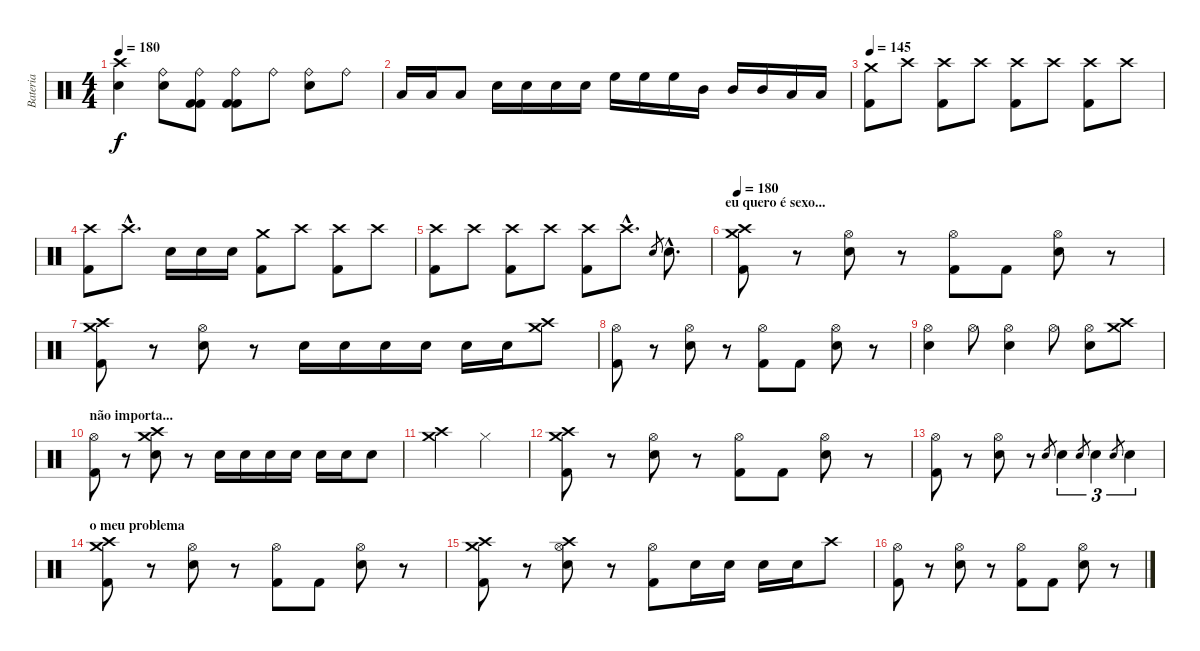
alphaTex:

\track ("Bateria" "Bateria") {instrument percussion}
\staff {score}
\articulation defaults
\ts (4 4)
\tempo 180
\clef neutral
\ks c
("Crash high (hit)" "Electric Snare (hit)").4{dy f} ("Ride (bell)" "Electric Snare (hit)").8 ("Ride (bell)" "Kick (hit) 2" "Kick (hit) 2").8 ("Ride (bell)" "Kick (hit) 2" "Kick (hit) 2").8 "Ride (bell)".8 ("Ride (bell)" "Electric Snare (hit)").8 "Ride (bell)".8 |
"Low Tom (hit)".16 "Low Tom (hit)".16 "Low Tom (hit)".8 "Electric Snare (hit)".16 "Electric Snare (hit)".16 "Electric Snare (hit)".16 "Electric Snare (hit)".16 "High Floor Tom (hit)".16 "High Floor Tom (hit)".16 "High Floor Tom (hit)".16 "Mid Tom (hit)".16 "Mid Tom (hit)".16 "Mid Tom (hit)".16 "Low Tom (hit)".16 "Low Tom (hit)".16 |
\tempo 145
("Crash medium (hit)" "Kick (hit) 2").8 "Crash high (hit)".8 ("Crash high (hit)" "Kick (hit) 2").8 "Crash high (hit)".8 ("Crash high (hit)" "Kick (hit) 2").8 "Crash high (hit)".8 ("Crash high (hit)" "Kick (hit) 2").8 "Crash high (hit)".8 |
("Crash high (hit)" "Kick (hit) 2").8 "Crash high (hit)"{hac}.8{d} "Electric Snare (hit)".16 "Electric Snare (hit)".16 "Electric Snare (hit)".16 ("Crash medium (hit)" "Kick (hit) 2").8 "Crash high (hit)".8 ("Crash high (hit)" "Kick (hit) 2").8 "Crash high (hit)".8 |
("Crash high (hit)" "Kick (hit) 2").8 "Crash high (hit)".8 ("Crash high (hit)" "Kick (hit) 2").8 "Crash high (hit)".8 ("Crash high (hit)" "Kick (hit) 2").8 "Crash high (hit)"{hac}.8{d} "Electric Snare (hit)".8{gr} "Electric Snare (hit)"{hac}.8{d} |
\section ("" "eu quero é sexo...")
\tempo 180
("Crash medium (hit)" "Crash high (hit)" "Kick (hit) 2").8 r.8 ("Hi-Hat (open)" "Electric Snare (hit)").8 r.8 ("Hi-Hat (open)" "Kick (hit) 2").8 "Kick (hit) 2".8 ("Hi-Hat (open)" "Electric Snare (hit)").8 r.8 |
("Crash medium (hit)" "Crash high (hit)" "Kick (hit) 2").8 r.8 ("Hi-Hat (open)" "Electric Snare (hit)").8 r.8 "Electric Snare (hit)".16 "Electric Snare (hit)".16 "Electric Snare (hit)".16 "Electric Snare (hit)".16 "Electric Snare (hit)".16 "Electric Snare (hit)".16 ("Crash medium (hit)" "Crash high (hit)").8 |
("Hi-Hat (open)" "Kick (hit) 2").8 r.8 ("Hi-Hat (open)" "Electric Snare (hit)").8 r.8 ("Hi-Hat (open)" "Kick (hit) 2").8 "Kick (hit) 2".8 ("Hi-Hat (open)" "Electric Snare (hit)").8 r.8 |
("Hi-Hat (open)" "Electric Snare (hit)").4 "Hi-Hat (open)".8 ("Hi-Hat (open)" "Electric Snare (hit)").4 "Hi-Hat (open)".8 ("Hi-Hat (open)" "Electric Snare (hit)").8 ("Crash medium (hit)" "Crash high (hit)").8 |
\section ("" "não importa...")
("Hi-Hat (open)" "Kick (hit) 2").8 r.8 ("Crash medium (hit)" "Crash high (hit)" "Electric Snare (hit)").8 r.8 "Electric Snare (hit)".16 "Electric Snare (hit)".16 "Electric Snare (hit)".16 "Electric Snare (hit)".16 "Electric Snare (hit)".16 "Electric Snare (hit)".16 "Electric Snare (hit)".8 |
("Crash medium (hit)" "Crash high (hit)").2 "Hi-Hat (closed)".2 |
("Crash medium (hit)" "Crash high (hit)" "Kick (hit) 2").8 r.8 ("Hi-Hat (open)" "Electric Snare (hit)").8 r.8 ("Hi-Hat (open)" "Kick (hit) 2").8 "Kick (hit) 2".8 ("Hi-Hat (open)" "Electric Snare (hit)").8 r.8 |
("Hi-Hat (open)" "Kick (hit) 2").8 r.8 ("Hi-Hat (open)" "Electric Snare (hit)").8 r.8 "Electric Snare (hit)".8{gr} "Electric Snare (hit)".4{tu (3 2)} "Electric Snare (hit)".8{gr} "Electric Snare (hit)".4{tu (3 2)} "Electric Snare (hit)".8{gr} "Electric Snare (hit)".4{tu (3 2)} |
\section ("" "o meu problema")
("Crash medium (hit)" "Crash high (hit)" "Kick (hit) 2").8 r.8 ("Hi-Hat (open)" "Electric Snare (hit)").8 r.8 ("Hi-Hat (open)" "Kick (hit) 2").8 "Kick (hit) 2".8 ("Hi-Hat (open)" "Electric Snare (hit)").8 r.8 |
("Crash medium (hit)" "Crash high (hit)" "Kick (hit) 2").8 r.8 ("Crash high (hit)" "Hi-Hat (open)" "Electric Snare (hit)").8 r.8 ("Hi-Hat (open)" "Kick (hit) 2").8 "Electric Snare (hit)".16 "Electric Snare (hit)".16 "Electric Snare (hit)".16 "Electric Snare (hit)".16 "Crash high (hit)".8 |
("Hi-Hat (open)" "Kick (hit) 2").8 r.8 ("Hi-Hat (open)" "Electric Snare (hit)").8 r.8 ("Hi-Hat (open)" "Kick (hit) 2").8 "Kick (hit) 2".8 ("Hi-Hat (open)" "Electric Snare (hit)").8 r.8
